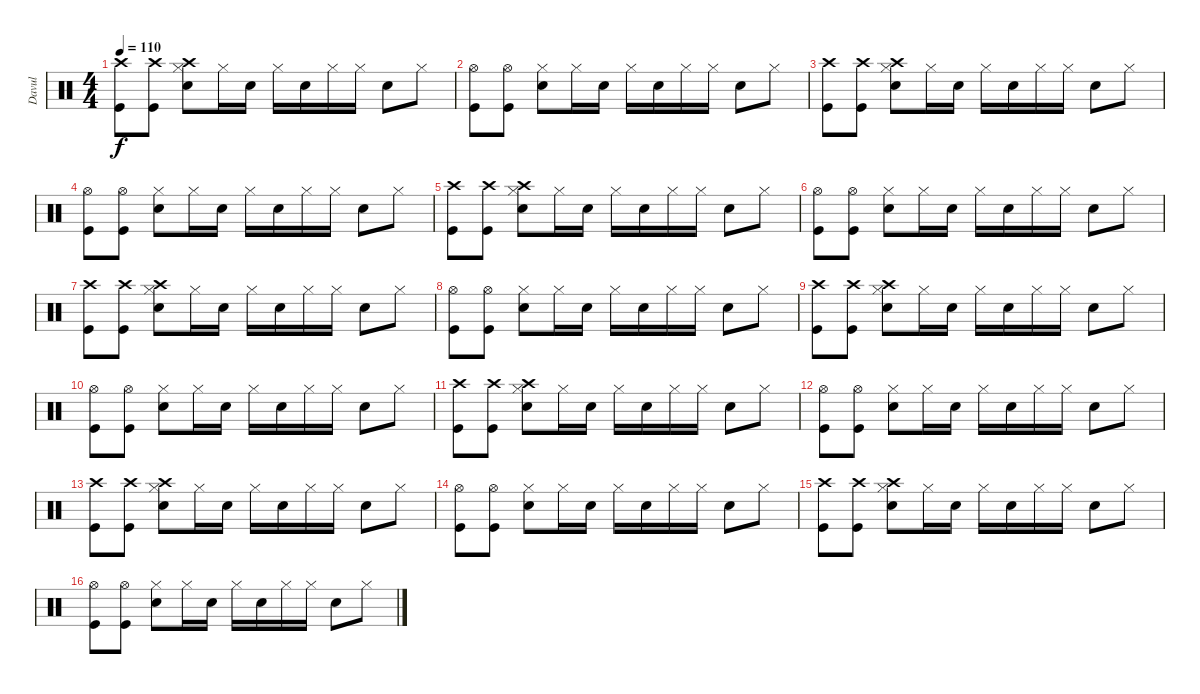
\track ("Davul" "Davul") {instrument percussion}
\staff {score}
\articulation defaults
\ts (4 4)
\tempo 110
\clef neutral
\ks c
("Kick (hit)" "Crash high (hit)").8{dy f} ("Kick (hit)" "Crash high (hit)").8 ("Snare (hit) 2" "Crash high (hit)" "Hi-Hat (closed)").8 "Hi-Hat (closed)".16 "Snare (hit) 2".16 "Hi-Hat (closed)".16 "Snare (hit) 2".16 "Hi-Hat (closed)".16 "Hi-Hat (closed)".16 "Snare (hit) 2".8 "Hi-Hat (closed)".8 |
("Kick (hit)" "Hi-Hat (open)").8 ("Kick (hit)" "Hi-Hat (open)").8 ("Snare (hit) 2" "Hi-Hat (closed)").8 "Hi-Hat (closed)".16 "Snare (hit) 2".16 "Hi-Hat (closed)".16 "Snare (hit) 2".16 "Hi-Hat (closed)".16 "Hi-Hat (closed)".16 "Snare (hit) 2".8 "Hi-Hat (closed)".8 |
("Kick (hit)" "Crash high (hit)").8 ("Kick (hit)" "Crash high (hit)").8 ("Snare (hit) 2" "Crash high (hit)" "Hi-Hat (closed)").8 "Hi-Hat (closed)".16 "Snare (hit) 2".16 "Hi-Hat (closed)".16 "Snare (hit) 2".16 "Hi-Hat (closed)".16 "Hi-Hat (closed)".16 "Snare (hit) 2".8 "Hi-Hat (closed)".8 |
("Kick (hit)" "Hi-Hat (open)").8 ("Kick (hit)" "Hi-Hat (open)").8 ("Snare (hit) 2" "Hi-Hat (closed)").8 "Hi-Hat (closed)".16 "Snare (hit) 2".16 "Hi-Hat (closed)".16 "Snare (hit) 2".16 "Hi-Hat (closed)".16 "Hi-Hat (closed)".16 "Snare (hit) 2".8 "Hi-Hat (closed)".8 |
("Kick (hit)" "Crash high (hit)").8 ("Kick (hit)" "Crash high (hit)").8 ("Snare (hit) 2" "Crash high (hit)" "Hi-Hat (closed)").8 "Hi-Hat (closed)".16 "Snare (hit) 2".16 "Hi-Hat (closed)".16 "Snare (hit) 2".16 "Hi-Hat (closed)".16 "Hi-Hat (closed)".16 "Snare (hit) 2".8 "Hi-Hat (closed)".8 |
("Kick (hit)" "Hi-Hat (open)").8 ("Kick (hit)" "Hi-Hat (open)").8 ("Snare (hit) 2" "Hi-Hat (closed)").8 "Hi-Hat (closed)".16 "Snare (hit) 2".16 "Hi-Hat (closed)".16 "Snare (hit) 2".16 "Hi-Hat (closed)".16 "Hi-Hat (closed)".16 "Snare (hit) 2".8 "Hi-Hat (closed)".8 |
("Kick (hit)" "Crash high (hit)").8 ("Kick (hit)" "Crash high (hit)").8 ("Snare (hit) 2" "Crash high (hit)" "Hi-Hat (closed)").8 "Hi-Hat (closed)".16 "Snare (hit) 2".16 "Hi-Hat (closed)".16 "Snare (hit) 2".16 "Hi-Hat (closed)".16 "Hi-Hat (closed)".16 "Snare (hit) 2".8 "Hi-Hat (closed)".8 |
("Kick (hit)" "Hi-Hat (open)").8 ("Kick (hit)" "Hi-Hat (open)").8 ("Snare (hit) 2" "Hi-Hat (closed)").8 "Hi-Hat (closed)".16 "Snare (hit) 2".16 "Hi-Hat (closed)".16 "Snare (hit) 2".16 "Hi-Hat (closed)".16 "Hi-Hat (closed)".16 "Snare (hit) 2".8 "Hi-Hat (closed)".8 |
("Kick (hit)" "Crash high (hit)").8 ("Kick (hit)" "Crash high (hit)").8 ("Snare (hit) 2" "Crash high (hit)" "Hi-Hat (closed)").8 "Hi-Hat (closed)".16 "Snare (hit) 2".16 "Hi-Hat (closed)".16 "Snare (hit) 2".16 "Hi-Hat (closed)".16 "Hi-Hat (closed)".16 "Snare (hit) 2".8 "Hi-Hat (closed)".8 |
("Kick (hit)" "Hi-Hat (open)").8 ("Kick (hit)" "Hi-Hat (open)").8 ("Snare (hit) 2" "Hi-Hat (closed)").8 "Hi-Hat (closed)".16 "Snare (hit) 2".16 "Hi-Hat (closed)".16 "Snare (hit) 2".16 "Hi-Hat (closed)".16 "Hi-Hat (closed)".16 "Snare (hit) 2".8 "Hi-Hat (closed)".8 |
("Kick (hit)" "Crash high (hit)").8 ("Kick (hit)" "Crash high (hit)").8 ("Snare (hit) 2" "Crash high (hit)" "Hi-Hat (closed)").8 "Hi-Hat (closed)".16 "Snare (hit) 2".16 "Hi-Hat (closed)".16 "Snare (hit) 2".16 "Hi-Hat (closed)".16 "Hi-Hat (closed)".16 "Snare (hit) 2".8 "Hi-Hat (closed)".8 |
("Kick (hit)" "Hi-Hat (open)").8 ("Kick (hit)" "Hi-Hat (open)").8 ("Snare (hit) 2" "Hi-Hat (closed)").8 "Hi-Hat (closed)".16 "Snare (hit) 2".16 "Hi-Hat (closed)".16 "Snare (hit) 2".16 "Hi-Hat (closed)".16 "Hi-Hat (closed)".16 "Snare (hit) 2".8 "Hi-Hat (closed)".8 |
("Kick (hit)" "Crash high (hit)").8 ("Kick (hit)" "Crash high (hit)").8 ("Snare (hit) 2" "Crash high (hit)" "Hi-Hat (closed)").8 "Hi-Hat (closed)".16 "Snare (hit) 2".16 "Hi-Hat (closed)".16 "Snare (hit) 2".16 "Hi-Hat (closed)".16 "Hi-Hat (closed)".16 "Snare (hit) 2".8 "Hi-Hat (closed)".8 |
("Kick (hit)" "Hi-Hat (open)").8 ("Kick (hit)" "Hi-Hat (open)").8 ("Snare (hit) 2" "Hi-Hat (closed)").8 "Hi-Hat (closed)".16 "Snare (hit) 2".16 "Hi-Hat (closed)".16 "Snare (hit) 2".16 "Hi-Hat (closed)".16 "Hi-Hat (closed)".16 "Snare (hit) 2".8 "Hi-Hat (closed)".8 |
("Kick (hit)" "Crash high (hit)").8 ("Kick (hit)" "Crash high (hit)").8 ("Snare (hit) 2" "Crash high (hit)" "Hi-Hat (closed)").8 "Hi-Hat (closed)".16 "Snare (hit) 2".16 "Hi-Hat (closed)".16 "Snare (hit) 2".16 "Hi-Hat (closed)".16 "Hi-Hat (closed)".16 "Snare (hit) 2".8 "Hi-Hat (closed)".8 |
("Kick (hit)" "Hi-Hat (open)").8 ("Kick (hit)" "Hi-Hat (open)").8 ("Snare (hit) 2" "Hi-Hat (closed)").8 "Hi-Hat (closed)".16 "Snare (hit) 2".16 "Hi-Hat (closed)".16 "Snare (hit) 2".16 "Hi-Hat (closed)".16 "Hi-Hat (closed)".16 "Snare (hit) 2".8 "Hi-Hat (closed)".8
